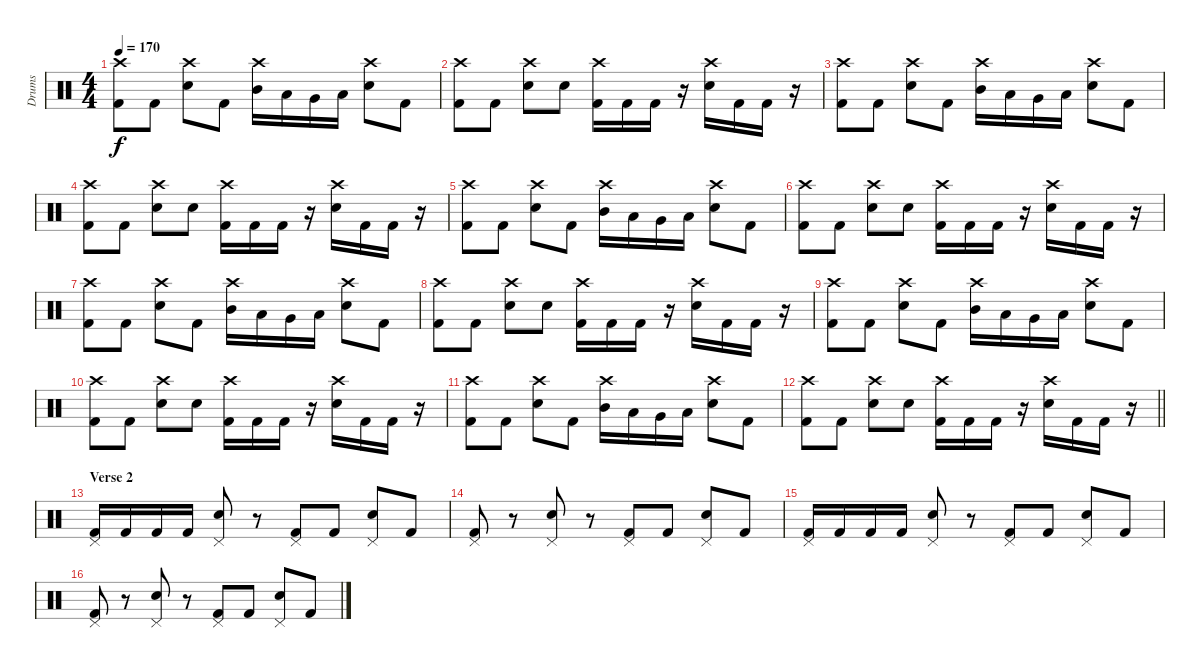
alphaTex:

\track ("Drums" "Drums") {instrument percussion}
\staff {score}
\articulation defaults
\ts (4 4)
\tempo 170
\clef neutral
\ks c
("Crash high (hit)" "Kick (hit) 2").8{dy f} "Kick (hit) 2".8 ("Crash high (hit)" "Electric Snare (hit)").8 "Kick (hit) 2".8 ("Crash high (hit)" "Mid Tom (hit)").16 "Low Tom (hit)".16 "Very Low Tom (hit)".16 "Low Tom (hit)".16 ("Crash high (hit)" "Electric Snare (hit)").8 "Kick (hit) 2".8 |
("Crash high (hit)" "Kick (hit) 2").8 "Kick (hit) 2".8 ("Crash high (hit)" "Electric Snare (hit)").8 "Electric Snare (hit)".8 ("Crash high (hit)" "Kick (hit) 2").16 "Kick (hit) 2".16 "Kick (hit) 2".16 r.16 ("Crash high (hit)" "Electric Snare (hit)").16 "Kick (hit) 2".16 "Kick (hit) 2".16 r.16 |
("Crash high (hit)" "Kick (hit) 2").8 "Kick (hit) 2".8 ("Crash high (hit)" "Electric Snare (hit)").8 "Kick (hit) 2".8 ("Crash high (hit)" "Mid Tom (hit)").16 "Low Tom (hit)".16 "Very Low Tom (hit)".16 "Low Tom (hit)".16 ("Crash high (hit)" "Electric Snare (hit)").8 "Kick (hit) 2".8 |
("Crash high (hit)" "Kick (hit) 2").8 "Kick (hit) 2".8 ("Crash high (hit)" "Electric Snare (hit)").8 "Electric Snare (hit)".8 ("Crash high (hit)" "Kick (hit) 2").16 "Kick (hit) 2".16 "Kick (hit) 2".16 r.16 ("Crash high (hit)" "Electric Snare (hit)").16 "Kick (hit) 2".16 "Kick (hit) 2".16 r.16 |
("Crash high (hit)" "Kick (hit) 2").8 "Kick (hit) 2".8 ("Crash high (hit)" "Electric Snare (hit)").8 "Kick (hit) 2".8 ("Crash high (hit)" "Mid Tom (hit)").16 "Low Tom (hit)".16 "Very Low Tom (hit)".16 "Low Tom (hit)".16 ("Crash high (hit)" "Electric Snare (hit)").8 "Kick (hit) 2".8 |
("Crash high (hit)" "Kick (hit) 2").8 "Kick (hit) 2".8 ("Crash high (hit)" "Electric Snare (hit)").8 "Electric Snare (hit)".8 ("Crash high (hit)" "Kick (hit) 2").16 "Kick (hit) 2".16 "Kick (hit) 2".16 r.16 ("Crash high (hit)" "Electric Snare (hit)").16 "Kick (hit) 2".16 "Kick (hit) 2".16 r.16 |
("Crash high (hit)" "Kick (hit) 2").8 "Kick (hit) 2".8 ("Crash high (hit)" "Electric Snare (hit)").8 "Kick (hit) 2".8 ("Crash high (hit)" "Mid Tom (hit)").16 "Low Tom (hit)".16 "Very Low Tom (hit)".16 "Low Tom (hit)".16 ("Crash high (hit)" "Electric Snare (hit)").8 "Kick (hit) 2".8 |
("Crash high (hit)" "Kick (hit) 2").8 "Kick (hit) 2".8 ("Crash high (hit)" "Electric Snare (hit)").8 "Electric Snare (hit)".8 ("Crash high (hit)" "Kick (hit) 2").16 "Kick (hit) 2".16 "Kick (hit) 2".16 r.16 ("Crash high (hit)" "Electric Snare (hit)").16 "Kick (hit) 2".16 "Kick (hit) 2".16 r.16 |
("Crash high (hit)" "Kick (hit) 2").8 "Kick (hit) 2".8 ("Crash high (hit)" "Electric Snare (hit)").8 "Kick (hit) 2".8 ("Crash high (hit)" "Mid Tom (hit)").16 "Low Tom (hit)".16 "Very Low Tom (hit)".16 "Low Tom (hit)".16 ("Crash high (hit)" "Electric Snare (hit)").8 "Kick (hit) 2".8 |
("Crash high (hit)" "Kick (hit) 2").8 "Kick (hit) 2".8 ("Crash high (hit)" "Electric Snare (hit)").8 "Electric Snare (hit)".8 ("Crash high (hit)" "Kick (hit) 2").16 "Kick (hit) 2".16 "Kick (hit) 2".16 r.16 ("Crash high (hit)" "Electric Snare (hit)").16 "Kick (hit) 2".16 "Kick (hit) 2".16 r.16 |
("Crash high (hit)" "Kick (hit) 2").8 "Kick (hit) 2".8 ("Crash high (hit)" "Electric Snare (hit)").8 "Kick (hit) 2".8 ("Crash high (hit)" "Mid Tom (hit)").16 "Low Tom (hit)".16 "Very Low Tom (hit)".16 "Low Tom (hit)".16 ("Crash high (hit)" "Electric Snare (hit)").8 "Kick (hit) 2".8 |
\barLineRight lightlight
("Crash high (hit)" "Kick (hit) 2").8 "Kick (hit) 2".8 ("Crash high (hit)" "Electric Snare (hit)").8 "Electric Snare (hit)".8 ("Crash high (hit)" "Kick (hit) 2").16 "Kick (hit) 2".16 "Kick (hit) 2".16 r.16 ("Crash high (hit)" "Electric Snare (hit)").16 "Kick (hit) 2".16 "Kick (hit) 2".16 r.16 |
\section ("" "Verse 2")
("Pedal Hi-Hat (hit)" "Kick (hit) 2").16 "Kick (hit) 2".16 "Kick (hit) 2".16 "Kick (hit) 2".16 ("Pedal Hi-Hat (hit)" "Electric Snare (hit)").8 r.8 ("Pedal Hi-Hat (hit)" "Kick (hit) 2").8 "Kick (hit) 2".8 ("Pedal Hi-Hat (hit)" "Electric Snare (hit)").8 "Kick (hit) 2".8 |
("Pedal Hi-Hat (hit)" "Kick (hit) 2").8 r.8 ("Pedal Hi-Hat (hit)" "Electric Snare (hit)").8 r.8 ("Pedal Hi-Hat (hit)" "Kick (hit) 2").8 "Kick (hit) 2".8 ("Pedal Hi-Hat (hit)" "Electric Snare (hit)").8 "Kick (hit) 2".8 |
("Pedal Hi-Hat (hit)" "Kick (hit) 2").16 "Kick (hit) 2".16 "Kick (hit) 2".16 "Kick (hit) 2".16 ("Pedal Hi-Hat (hit)" "Electric Snare (hit)").8 r.8 ("Pedal Hi-Hat (hit)" "Kick (hit) 2").8 "Kick (hit) 2".8 ("Pedal Hi-Hat (hit)" "Electric Snare (hit)").8 "Kick (hit) 2".8 |
("Pedal Hi-Hat (hit)" "Kick (hit) 2").8 r.8 ("Pedal Hi-Hat (hit)" "Electric Snare (hit)").8 r.8 ("Pedal Hi-Hat (hit)" "Kick (hit) 2").8 "Kick (hit) 2".8 ("Pedal Hi-Hat (hit)" "Electric Snare (hit)").8 "Kick (hit) 2".8
